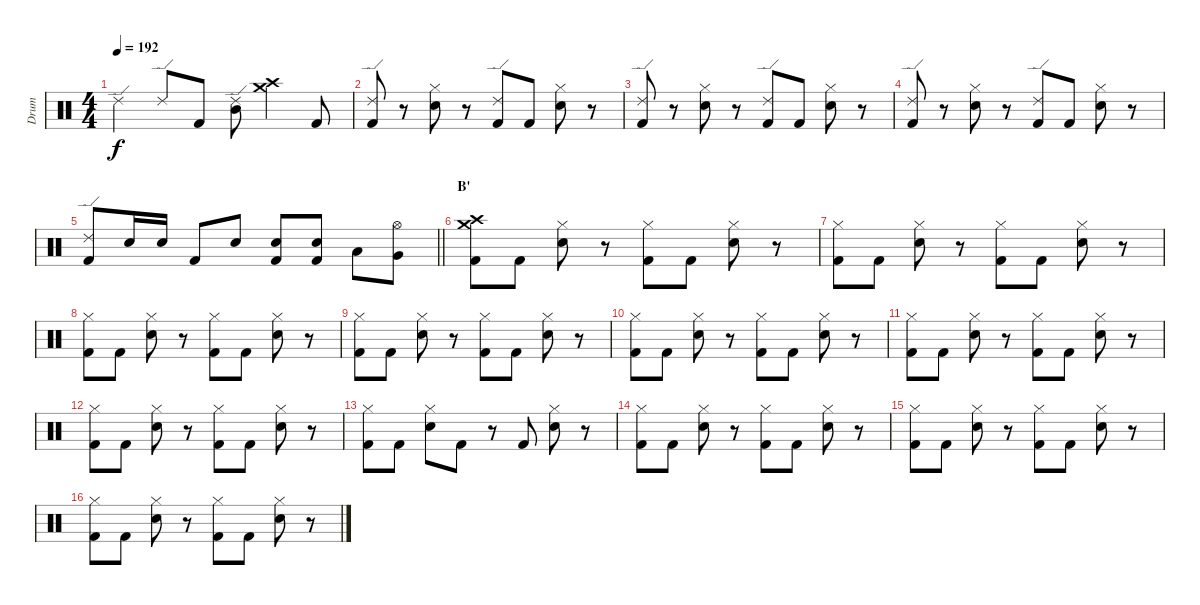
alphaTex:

\track ("Drum" "Drum") {instrument percussion}
\staff {score}
\articulation defaults
\ts (4 4)
\tempo 192
\clef neutral
\ks c "Ride (edge) 2".4{dy f} "Ride (edge) 2".8 "Kick (hit) 2".8
("Ride (edge) 2" "Mid Tom (hit)").8 ("Crash high (hit)" "Crash medium (hit)").4 "Kick (hit) 2".8 |
("Ride (edge) 2" "Kick (hit) 2").8 r.8 ("Hi-Hat (closed)" "Electric Snare (hit)").8 r.8 ("Ride (edge) 2" "Kick (hit) 2").8 "Kick (hit) 2".8 ("Hi-Hat (closed)" "Electric Snare (hit)").8 r.8 |
("Ride (edge) 2" "Kick (hit) 2").8 r.8 ("Hi-Hat (closed)" "Electric Snare (hit)").8 r.8 ("Ride (edge) 2" "Kick (hit) 2").8 "Kick (hit) 2".8 ("Hi-Hat (closed)" "Electric Snare (hit)").8 r.8 |
("Ride (edge) 2" "Kick (hit) 2").8 r.8 ("Hi-Hat (closed)" "Electric Snare (hit)").8 r.8 ("Ride (edge) 2" "Kick (hit) 2").8 "Kick (hit) 2".8 ("Hi-Hat (closed)" "Electric Snare (hit)").8 r.8 |
\barLineRight lightlight
("Ride (edge) 2" "Kick (hit) 2").8 "Electric Snare (hit)".16 "Electric Snare (hit)".16 "Kick (hit) 2".8 "Electric Snare (hit)".8 ("Electric Snare (hit)" "Kick (hit) 2").8 ("Electric Snare (hit)" "Kick (hit) 2").8 "Low Tom (hit)".8 ("Hi-Hat (open)" "Very Low Tom (hit)").8 |
\section ("" "B'")
("Crash high (hit)" "Crash medium (hit)" "Kick (hit) 2").8 "Kick (hit) 2".8 ("Hi-Hat (closed)" "Electric Snare (hit)").8 r.8 ("Hi-Hat (closed)" "Kick (hit) 2").8 "Kick (hit) 2".8 ("Hi-Hat (closed)" "Electric Snare (hit)").8 r.8 |
("Hi-Hat (closed)" "Kick (hit) 2").8 "Kick (hit) 2".8 ("Hi-Hat (closed)" "Electric Snare (hit)").8 r.8 ("Hi-Hat (closed)" "Kick (hit) 2").8 "Kick (hit) 2".8 ("Hi-Hat (closed)" "Electric Snare (hit)").8 r.8 |
("Hi-Hat (closed)" "Kick (hit) 2").8 "Kick (hit) 2".8 ("Hi-Hat (closed)" "Electric Snare (hit)").8 r.8 ("Hi-Hat (closed)" "Kick (hit) 2").8 "Kick (hit) 2".8 ("Hi-Hat (closed)" "Electric Snare (hit)").8 r.8 |
("Hi-Hat (closed)" "Kick (hit) 2").8 "Kick (hit) 2".8 ("Hi-Hat (closed)" "Electric Snare (hit)").8 r.8 ("Hi-Hat (closed)" "Kick (hit) 2").8 "Kick (hit) 2".8 ("Hi-Hat (closed)" "Electric Snare (hit)").8 r.8 |
("Hi-Hat (closed)" "Kick (hit) 2").8 "Kick (hit) 2".8 ("Hi-Hat (closed)" "Electric Snare (hit)").8 r.8 ("Hi-Hat (closed)" "Kick (hit) 2").8 "Kick (hit) 2".8 ("Hi-Hat (closed)" "Electric Snare (hit)").8 r.8 |
("Hi-Hat (closed)" "Kick (hit) 2").8 "Kick (hit) 2".8 ("Hi-Hat (closed)" "Electric Snare (hit)").8 r.8 ("Hi-Hat (closed)" "Kick (hit) 2").8 "Kick (hit) 2".8 ("Hi-Hat (closed)" "Electric Snare (hit)").8 r.8 |
("Hi-Hat (closed)" "Kick (hit) 2").8 "Kick (hit) 2".8 ("Hi-Hat (closed)" "Electric Snare (hit)").8 r.8 ("Hi-Hat (closed)" "Kick (hit) 2").8 "Kick (hit) 2".8 ("Hi-Hat (closed)" "Electric Snare (hit)").8 r.8 |
("Hi-Hat (closed)" "Kick (hit) 2").8 "Kick (hit) 2".8 ("Hi-Hat (closed)" "Electric Snare (hit)").8 "Kick (hit) 2".8 r.8 "Kick (hit) 2".8 ("Hi-Hat (closed)" "Electric Snare (hit)").8 r.8 |
("Hi-Hat (closed)" "Kick (hit) 2").8 "Kick (hit) 2".8 ("Hi-Hat (closed)" "Electric Snare (hit)").8 r.8 ("Hi-Hat (closed)" "Kick (hit) 2").8 "Kick (hit) 2".8 ("Hi-Hat (closed)" "Electric Snare (hit)").8 r.8 |
("Hi-Hat (closed)" "Kick (hit) 2").8 "Kick (hit) 2".8 ("Hi-Hat (closed)" "Electric Snare (hit)").8 r.8 ("Hi-Hat (closed)" "Kick (hit) 2").8 "Kick (hit) 2".8 ("Hi-Hat (closed)" "Electric Snare (hit)").8 r.8 |
("Hi-Hat (closed)" "Kick (hit) 2").8 "Kick (hit) 2".8 ("Hi-Hat (closed)" "Electric Snare (hit)").8 r.8 ("Hi-Hat (closed)" "Kick (hit) 2").8 "Kick (hit) 2".8 ("Hi-Hat (closed)" "Electric Snare (hit)").8 r.8
